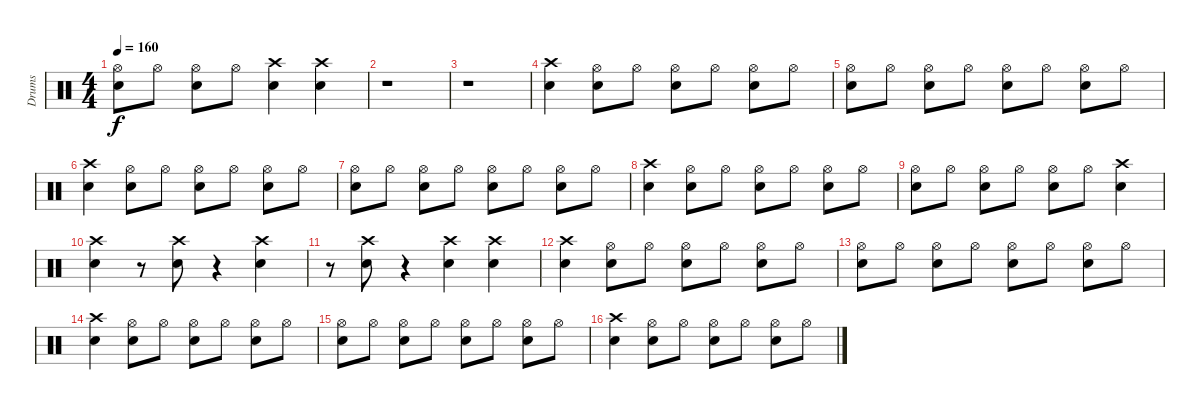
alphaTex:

\track ("Drums" "Drums") {instrument percussion}
\staff {score}
\articulation defaults
\ts (4 4)
\tempo 160
\clef neutral
\ks c
("Hi-Hat (open)" "Snare (hit) 2").8{dy f} "Hi-Hat (open)".8 ("Hi-Hat (open)" "Snare (hit) 2").8 "Hi-Hat (open)".8 ("Crash high (hit)" "Snare (hit) 2").4 ("Crash high (hit)" "Snare (hit) 2").4 |
r.1 |
r.1 |
("Crash high (hit)" "Snare (hit) 2").4 ("Hi-Hat (open)" "Snare (hit) 2").8 "Hi-Hat (open)".8 ("Hi-Hat (open)" "Snare (hit) 2").8 "Hi-Hat (open)".8 ("Hi-Hat (open)" "Snare (hit) 2").8 "Hi-Hat (open)".8 |
("Hi-Hat (open)" "Snare (hit) 2").8 "Hi-Hat (open)".8 ("Hi-Hat (open)" "Snare (hit) 2").8 "Hi-Hat (open)".8 ("Hi-Hat (open)" "Snare (hit) 2").8 "Hi-Hat (open)".8 ("Hi-Hat (open)" "Snare (hit) 2").8 "Hi-Hat (open)".8 |
("Crash high (hit)" "Snare (hit) 2").4 ("Hi-Hat (open)" "Snare (hit) 2").8 "Hi-Hat (open)".8 ("Hi-Hat (open)" "Snare (hit) 2").8 "Hi-Hat (open)".8 ("Hi-Hat (open)" "Snare (hit) 2").8 "Hi-Hat (open)".8 |
("Hi-Hat (open)" "Snare (hit) 2").8 "Hi-Hat (open)".8 ("Hi-Hat (open)" "Snare (hit) 2").8 "Hi-Hat (open)".8 ("Hi-Hat (open)" "Snare (hit) 2").8 "Hi-Hat (open)".8 ("Hi-Hat (open)" "Snare (hit) 2").8 "Hi-Hat (open)".8 |
("Crash high (hit)" "Snare (hit) 2").4 ("Hi-Hat (open)" "Snare (hit) 2").8 "Hi-Hat (open)".8 ("Hi-Hat (open)" "Snare (hit) 2").8 "Hi-Hat (open)".8 ("Hi-Hat (open)" "Snare (hit) 2").8 "Hi-Hat (open)".8 |
("Hi-Hat (open)" "Snare (hit) 2").8 "Hi-Hat (open)".8 ("Hi-Hat (open)" "Snare (hit) 2").8 "Hi-Hat (open)".8 ("Hi-Hat (open)" "Snare (hit) 2").8 "Hi-Hat (open)".8 ("Crash high (hit)" "Snare (hit) 2").4 |
("Crash high (hit)" "Snare (hit) 2").4 r.8 ("Crash high (hit)" "Snare (hit) 2").8 r.4 ("Crash high (hit)" "Snare (hit) 2").4 |
r.8 ("Crash high (hit)" "Snare (hit) 2").8 r.4 ("Crash high (hit)" "Snare (hit) 2").4 ("Crash high (hit)" "Snare (hit) 2").4 |
("Crash high (hit)" "Snare (hit) 2").4 ("Hi-Hat (open)" "Snare (hit) 2").8 "Hi-Hat (open)".8 ("Hi-Hat (open)" "Snare (hit) 2").8 "Hi-Hat (open)".8 ("Hi-Hat (open)" "Snare (hit) 2").8 "Hi-Hat (open)".8 |
("Hi-Hat (open)" "Snare (hit) 2").8 "Hi-Hat (open)".8 ("Hi-Hat (open)" "Snare (hit) 2").8 "Hi-Hat (open)".8 ("Hi-Hat (open)" "Snare (hit) 2").8 "Hi-Hat (open)".8 ("Hi-Hat (open)" "Snare (hit) 2").8 "Hi-Hat (open)".8 |
("Crash high (hit)" "Snare (hit) 2").4 ("Hi-Hat (open)" "Snare (hit) 2").8 "Hi-Hat (open)".8 ("Hi-Hat (open)" "Snare (hit) 2").8 "Hi-Hat (open)".8 ("Hi-Hat (open)" "Snare (hit) 2").8 "Hi-Hat (open)".8 |
("Hi-Hat (open)" "Snare (hit) 2").8 "Hi-Hat (open)".8 ("Hi-Hat (open)" "Snare (hit) 2").8 "Hi-Hat (open)".8 ("Hi-Hat (open)" "Snare (hit) 2").8 "Hi-Hat (open)".8 ("Hi-Hat (open)" "Snare (hit) 2").8 "Hi-Hat (open)".8 |
("Crash high (hit)" "Snare (hit) 2").4 ("Hi-Hat (open)" "Snare (hit) 2").8 "Hi-Hat (open)".8 ("Hi-Hat (open)" "Snare (hit) 2").8 "Hi-Hat (open)".8 ("Hi-Hat (open)" "Snare (hit) 2").8 "Hi-Hat (open)".8
